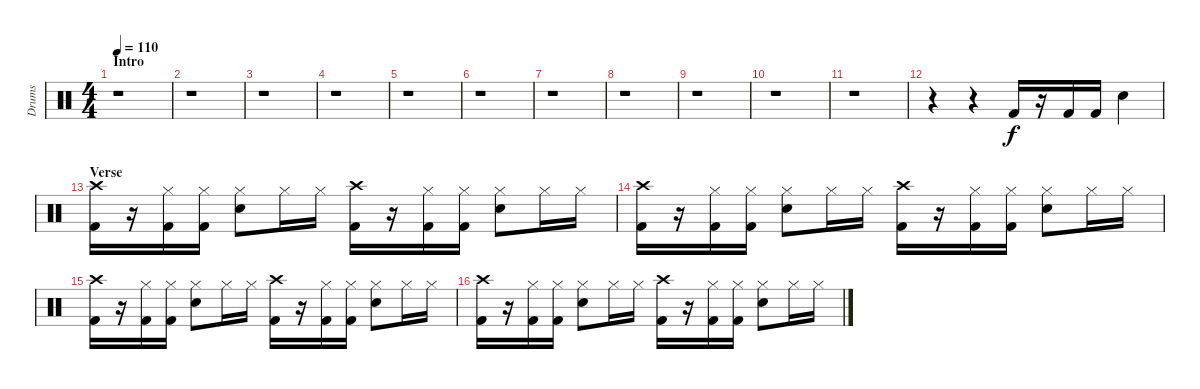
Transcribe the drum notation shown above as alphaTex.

\track ("Drums" "Drums") {instrument percussion}
\staff {score}
\articulation defaults
\ts (4 4)
\section ("" "Intro")
\tempo 110
\clef neutral
\ks c
r.1{dy f} |
r.1 |
r.1 |
r.1 |
r.1 |
r.1 |
r.1 |
r.1 |
r.1 |
r.1 |
r.1 |
r.4 r.4 "Kick (hit) 2".16 r.16 "Kick (hit) 2".16 "Kick (hit) 2".16 "Snare (hit) 2".4 |
\section ("" "Verse")
("Crash high (hit)" "Kick (hit) 2").16 r.16 ("Hi-Hat (closed)" "Kick (hit) 2").16 ("Hi-Hat (closed)" "Kick (hit) 2").16 ("Hi-Hat (closed)" "Snare (hit) 2").8 "Hi-Hat (closed)".16 "Hi-Hat (closed)".16 ("Crash high (hit)" "Kick (hit) 2").16 r.16 ("Hi-Hat (closed)" "Kick (hit) 2").16 ("Hi-Hat (closed)" "Kick (hit) 2").16 ("Hi-Hat (closed)" "Snare (hit) 2").8 "Hi-Hat (closed)".16 "Hi-Hat (closed)".16 |
("Crash high (hit)" "Kick (hit) 2").16 r.16 ("Hi-Hat (closed)" "Kick (hit) 2").16 ("Hi-Hat (closed)" "Kick (hit) 2").16 ("Hi-Hat (closed)" "Snare (hit) 2").8 "Hi-Hat (closed)".16 "Hi-Hat (closed)".16 ("Crash high (hit)" "Kick (hit) 2").16 r.16 ("Hi-Hat (closed)" "Kick (hit) 2").16 ("Hi-Hat (closed)" "Kick (hit) 2").16 ("Hi-Hat (closed)" "Snare (hit) 2").8 "Hi-Hat (closed)".16 "Hi-Hat (closed)".16 |
("Crash high (hit)" "Kick (hit) 2").16 r.16 ("Hi-Hat (closed)" "Kick (hit) 2").16 ("Hi-Hat (closed)" "Kick (hit) 2").16 ("Hi-Hat (closed)" "Snare (hit) 2").8 "Hi-Hat (closed)".16 "Hi-Hat (closed)".16 ("Crash high (hit)" "Kick (hit) 2").16 r.16 ("Hi-Hat (closed)" "Kick (hit) 2").16 ("Hi-Hat (closed)" "Kick (hit) 2").16 ("Hi-Hat (closed)" "Snare (hit) 2").8 "Hi-Hat (closed)".16 "Hi-Hat (closed)".16 |
("Crash high (hit)" "Kick (hit) 2").16 r.16 ("Hi-Hat (closed)" "Kick (hit) 2").16 ("Hi-Hat (closed)" "Kick (hit) 2").16 ("Hi-Hat (closed)" "Snare (hit) 2").8 "Hi-Hat (closed)".16 "Hi-Hat (closed)".16 ("Crash high (hit)" "Kick (hit) 2").16 r.16 ("Hi-Hat (closed)" "Kick (hit) 2").16 ("Hi-Hat (closed)" "Kick (hit) 2").16 ("Hi-Hat (closed)" "Snare (hit) 2").8 "Hi-Hat (closed)".16 "Hi-Hat (closed)".16
